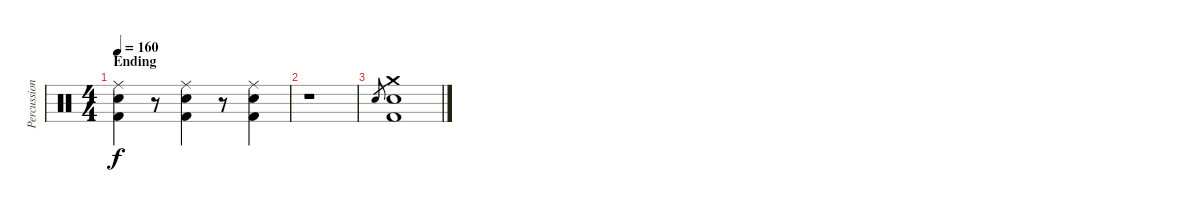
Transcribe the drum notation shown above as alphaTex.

\track ("Percussion" "Percussion") {instrument percussion}
\staff {score}
\articulation defaults
\ts (4 4)
\section ("" "Ending")
\tempo 160
\clef neutral
\ks c
("Ride (middle)" "Snare (hit) 2" "Kick (hit) 2").4{dy f} r.8 ("Ride (middle)" "Snare (hit) 2" "Kick (hit) 2").4 r.8 ("Ride (middle)" "Snare (hit) 2" "Kick (hit) 2").4 |
r.1 |
"Snare (hit) 2".8{gr} ("Crash medium (hit)" "Snare (hit) 2" "Kick (hit) 2").1
